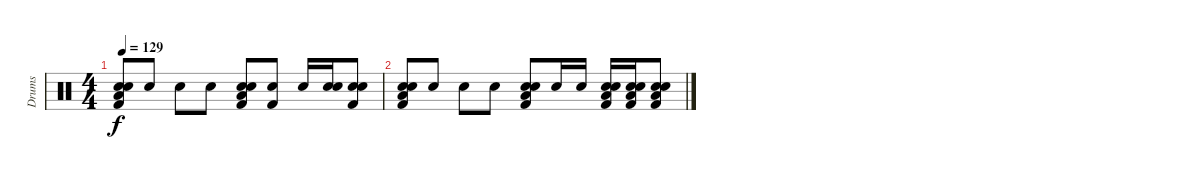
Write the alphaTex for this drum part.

\track ("Drums" "Drums") {instrument percussion}
\staff {score}
\articulation defaults
\ts (4 4)
\tempo 129
\clef neutral
\ks c
("Snare (hit) 2" "Low Tom (hit)" "Snare (hit) 2" "Kick (hit) 2").8{dy f} "Snare (hit) 2".8 "Snare (hit) 2".8 "Snare (hit) 2".8 ("Snare (hit) 2" "Low Tom (hit)" "Snare (hit) 2" "Kick (hit) 2").8 ("Snare (hit) 2" "Kick (hit) 2").8 "Snare (hit) 2".16 ("Snare (hit) 2" "Snare (hit) 2").16 ("Snare (hit) 2" "Snare (hit) 2" "Kick (hit) 2").8 |
("Snare (hit) 2" "Low Tom (hit)" "Snare (hit) 2" "Kick (hit) 2").8 "Snare (hit) 2".8 "Snare (hit) 2".8 "Snare (hit) 2".8 ("Snare (hit) 2" "Low Tom (hit)" "Snare (hit) 2" "Kick (hit) 2").8 "Snare (hit) 2".16 "Snare (hit) 2".16 ("Snare (hit) 2" "Low Tom (hit)" "Snare (hit) 2" "Kick (hit) 2").16 ("Snare (hit) 2" "Low Tom (hit)" "Snare (hit) 2" "Kick (hit) 2").16 ("Snare (hit) 2" "Low Tom (hit)" "Snare (hit) 2" "Kick (hit) 2").8
